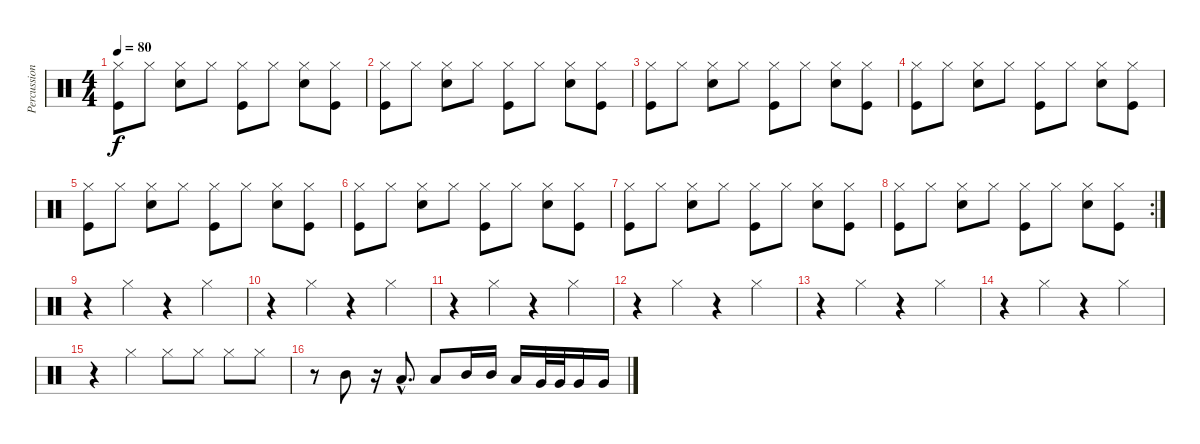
\track ("Percussions" "Percussion") {instrument percussion}
\staff {score}
\articulation defaults
\ts (4 4)
\tempo 80
\clef neutral
\ks c
("Hi-Hat (closed)" "Kick (hit)").8{dy f} "Hi-Hat (closed)".8 ("Hi-Hat (closed)" "Snare (hit) 2").8 "Hi-Hat (closed)".8 ("Hi-Hat (closed)" "Kick (hit)").8 "Hi-Hat (closed)".8 ("Hi-Hat (closed)" "Snare (hit) 2").8 ("Hi-Hat (closed)" "Kick (hit)").8 |
("Hi-Hat (closed)" "Kick (hit)").8 "Hi-Hat (closed)".8 ("Hi-Hat (closed)" "Snare (hit) 2").8 "Hi-Hat (closed)".8 ("Hi-Hat (closed)" "Kick (hit)").8 "Hi-Hat (closed)".8 ("Hi-Hat (closed)" "Snare (hit) 2").8 ("Hi-Hat (closed)" "Kick (hit)").8 |
("Hi-Hat (closed)" "Kick (hit)").8 "Hi-Hat (closed)".8 ("Hi-Hat (closed)" "Snare (hit) 2").8 "Hi-Hat (closed)".8 ("Hi-Hat (closed)" "Kick (hit)").8 "Hi-Hat (closed)".8 ("Hi-Hat (closed)" "Snare (hit) 2").8 ("Hi-Hat (closed)" "Kick (hit)").8 |
("Hi-Hat (closed)" "Kick (hit)").8 "Hi-Hat (closed)".8 ("Hi-Hat (closed)" "Snare (hit) 2").8 "Hi-Hat (closed)".8 ("Hi-Hat (closed)" "Kick (hit)").8 "Hi-Hat (closed)".8 ("Hi-Hat (closed)" "Snare (hit) 2").8 ("Hi-Hat (closed)" "Kick (hit)").8 |
("Hi-Hat (closed)" "Kick (hit)").8 "Hi-Hat (closed)".8 ("Hi-Hat (closed)" "Snare (hit) 2").8 "Hi-Hat (closed)".8 ("Hi-Hat (closed)" "Kick (hit)").8 "Hi-Hat (closed)".8 ("Hi-Hat (closed)" "Snare (hit) 2").8 ("Hi-Hat (closed)" "Kick (hit)").8 |
("Hi-Hat (closed)" "Kick (hit)").8 "Hi-Hat (closed)".8 ("Hi-Hat (closed)" "Snare (hit) 2").8 "Hi-Hat (closed)".8 ("Hi-Hat (closed)" "Kick (hit)").8 "Hi-Hat (closed)".8 ("Hi-Hat (closed)" "Snare (hit) 2").8 ("Hi-Hat (closed)" "Kick (hit)").8 |
("Hi-Hat (closed)" "Kick (hit)").8 "Hi-Hat (closed)".8 ("Hi-Hat (closed)" "Snare (hit) 2").8 "Hi-Hat (closed)".8 ("Hi-Hat (closed)" "Kick (hit)").8 "Hi-Hat (closed)".8 ("Hi-Hat (closed)" "Snare (hit) 2").8 ("Hi-Hat (closed)" "Kick (hit)").8 |
\rc 2
("Hi-Hat (closed)" "Kick (hit)").8 "Hi-Hat (closed)".8 ("Hi-Hat (closed)" "Snare (hit) 2").8 "Hi-Hat (closed)".8 ("Hi-Hat (closed)" "Kick (hit)").8 "Hi-Hat (closed)".8 ("Hi-Hat (closed)" "Snare (hit) 2").8 ("Hi-Hat (closed)" "Kick (hit)").8 |
r.4 "Hi-Hat (closed)".4 r.4 "Hi-Hat (closed)".4 |
r.4 "Hi-Hat (closed)".4 r.4 "Hi-Hat (closed)".4 |
r.4 "Hi-Hat (closed)".4 r.4 "Hi-Hat (closed)".4 |
r.4 "Hi-Hat (closed)".4 r.4 "Hi-Hat (closed)".4 |
r.4 "Hi-Hat (closed)".4 r.4 "Hi-Hat (closed)".4 |
r.4 "Hi-Hat (closed)".4 r.4 "Hi-Hat (closed)".4 |
r.4 "Hi-Hat (closed)".4 "Hi-Hat (closed)".8 "Hi-Hat (closed)".8 "Hi-Hat (closed)".8 "Hi-Hat (closed)".8 |
r.8 "Mid Tom (hit)".8 r.16 "Low Tom (hit)"{hac}.8{d} "Low Tom (hit)".8 "Mid Tom (hit)".16 "Mid Tom (hit)".16 "Low Tom (hit)".16 "Very Low Tom (hit)".32 "Very Low Tom (hit)".32 "Very Low Tom (hit)".16 "Very Low Tom (hit)".16
